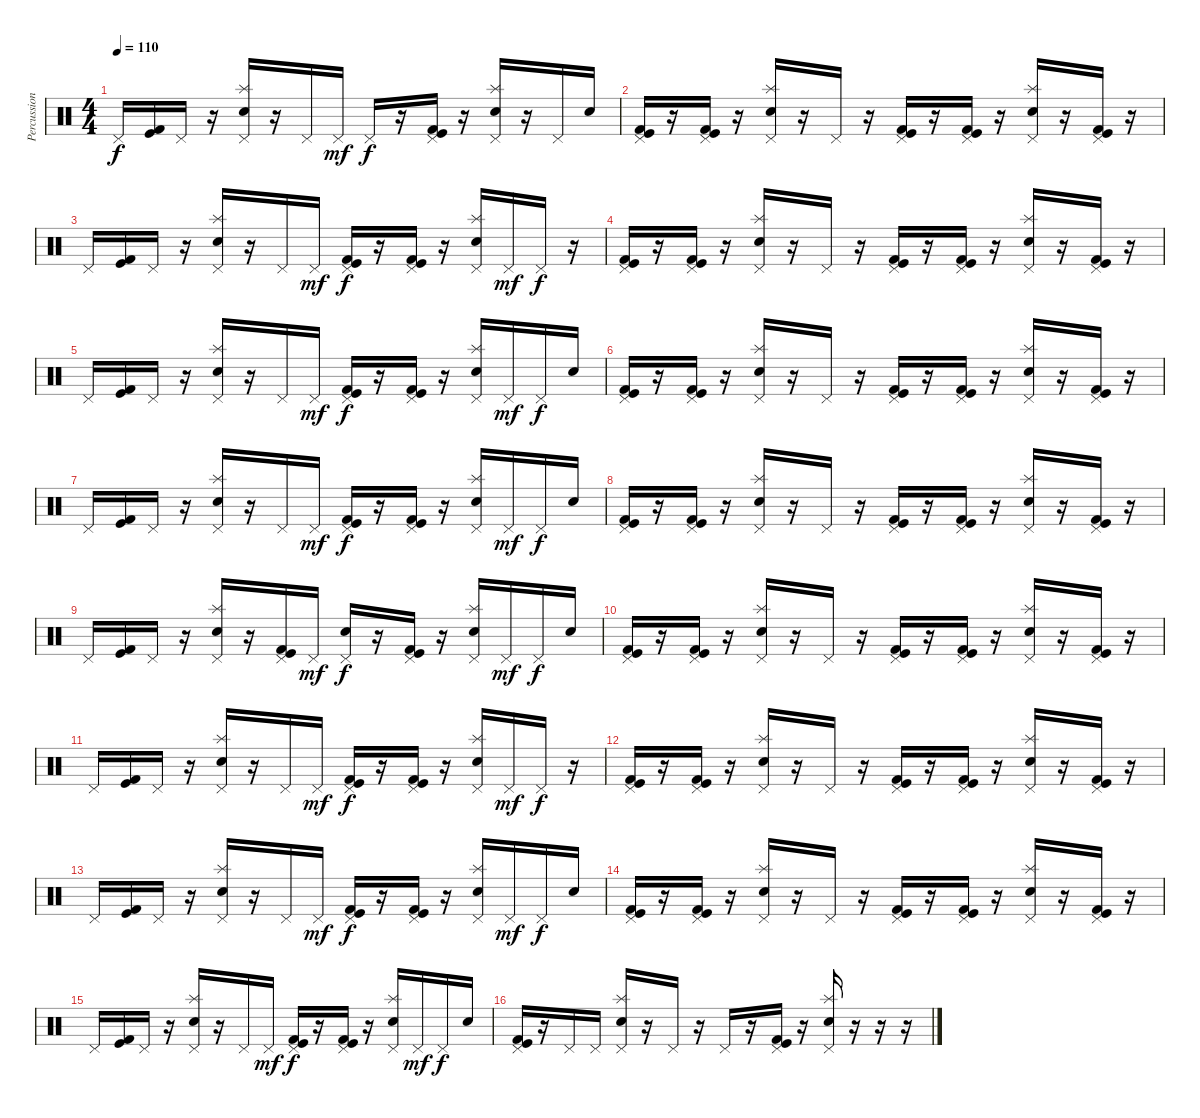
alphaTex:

\track ("Percussion" "Percussion") {instrument percussion}
\staff {score}
\articulation defaults
\ts (4 4)
\tempo 110
\clef neutral
\ks c "Pedal Hi-Hat (hit)".16{dy f}
("Kick (hit)" "Kick (hit) 2").16 "Pedal Hi-Hat (hit)".16 r.16 ("Pedal Hi-Hat (hit)" "Splash (hit)" "Snare (hit) 2").16 r.16 "Pedal Hi-Hat (hit)".16 "Pedal Hi-Hat (hit)".16{dy mf} "Pedal Hi-Hat (hit)".16{dy f} r.16 ("Pedal Hi-Hat (hit)" "Kick (hit)" "Kick (hit) 2").16 r.16 ("Pedal Hi-Hat (hit)" "Splash (hit)" "Snare (hit) 2").16 r.16 "Pedal Hi-Hat (hit)".16 "Snare (hit) 2".16 |
("Pedal Hi-Hat (hit)" "Kick (hit) 2" "Kick (hit)").16 r.16 ("Pedal Hi-Hat (hit)" "Kick (hit)" "Kick (hit) 2").16 r.16 ("Pedal Hi-Hat (hit)" "Splash (hit)" "Snare (hit) 2").16 r.16 "Pedal Hi-Hat (hit)".16 r.16 ("Pedal Hi-Hat (hit)" "Kick (hit)" "Kick (hit) 2").16 r.16 ("Pedal Hi-Hat (hit)" "Kick (hit) 2" "Kick (hit)").16 r.16 ("Pedal Hi-Hat (hit)" "Splash (hit)" "Snare (hit) 2").16 r.16 ("Pedal Hi-Hat (hit)" "Kick (hit)" "Kick (hit) 2").16 r.16 |
"Pedal Hi-Hat (hit)".16 ("Kick (hit)" "Kick (hit) 2").16 "Pedal Hi-Hat (hit)".16 r.16 ("Pedal Hi-Hat (hit)" "Splash (hit)" "Snare (hit) 2").16 r.16 "Pedal Hi-Hat (hit)".16 "Pedal Hi-Hat (hit)".16{dy mf} ("Pedal Hi-Hat (hit)" "Kick (hit) 2" "Kick (hit)").16{dy f} r.16 ("Pedal Hi-Hat (hit)" "Kick (hit)" "Kick (hit) 2").16 r.16 ("Pedal Hi-Hat (hit)" "Splash (hit)" "Snare (hit) 2").16 "Pedal Hi-Hat (hit)".16{dy mf} "Pedal Hi-Hat (hit)".16{dy f} r.16 |
("Pedal Hi-Hat (hit)" "Kick (hit) 2" "Kick (hit)").16 r.16 ("Pedal Hi-Hat (hit)" "Kick (hit)" "Kick (hit) 2").16 r.16 ("Pedal Hi-Hat (hit)" "Splash (hit)" "Snare (hit) 2").16 r.16 "Pedal Hi-Hat (hit)".16 r.16 ("Pedal Hi-Hat (hit)" "Kick (hit)" "Kick (hit) 2").16 r.16 ("Pedal Hi-Hat (hit)" "Kick (hit) 2" "Kick (hit)").16 r.16 ("Pedal Hi-Hat (hit)" "Splash (hit)" "Snare (hit) 2").16 r.16 ("Pedal Hi-Hat (hit)" "Kick (hit)" "Kick (hit) 2").16 r.16 |
"Pedal Hi-Hat (hit)".16 ("Kick (hit)" "Kick (hit) 2").16 "Pedal Hi-Hat (hit)".16 r.16 ("Pedal Hi-Hat (hit)" "Splash (hit)" "Snare (hit) 2").16 r.16 "Pedal Hi-Hat (hit)".16 "Pedal Hi-Hat (hit)".16{dy mf} ("Pedal Hi-Hat (hit)" "Kick (hit) 2" "Kick (hit)").16{dy f} r.16 ("Pedal Hi-Hat (hit)" "Kick (hit)" "Kick (hit) 2").16 r.16 ("Pedal Hi-Hat (hit)" "Splash (hit)" "Snare (hit) 2").16 "Pedal Hi-Hat (hit)".16{dy mf} "Pedal Hi-Hat (hit)".16{dy f} "Snare (hit) 2".16 |
("Pedal Hi-Hat (hit)" "Kick (hit) 2" "Kick (hit)").16 r.16 ("Pedal Hi-Hat (hit)" "Kick (hit)" "Kick (hit) 2").16 r.16 ("Pedal Hi-Hat (hit)" "Splash (hit)" "Snare (hit) 2").16 r.16 "Pedal Hi-Hat (hit)".16 r.16 ("Pedal Hi-Hat (hit)" "Kick (hit)" "Kick (hit) 2").16 r.16 ("Pedal Hi-Hat (hit)" "Kick (hit) 2" "Kick (hit)").16 r.16 ("Pedal Hi-Hat (hit)" "Splash (hit)" "Snare (hit) 2").16 r.16 ("Pedal Hi-Hat (hit)" "Kick (hit)" "Kick (hit) 2").16 r.16 |
"Pedal Hi-Hat (hit)".16 ("Kick (hit)" "Kick (hit) 2").16 "Pedal Hi-Hat (hit)".16 r.16 ("Pedal Hi-Hat (hit)" "Splash (hit)" "Snare (hit) 2").16 r.16 "Pedal Hi-Hat (hit)".16 "Pedal Hi-Hat (hit)".16{dy mf} ("Pedal Hi-Hat (hit)" "Kick (hit) 2" "Kick (hit)").16{dy f} r.16 ("Pedal Hi-Hat (hit)" "Kick (hit)" "Kick (hit) 2").16 r.16 ("Pedal Hi-Hat (hit)" "Splash (hit)" "Snare (hit) 2").16 "Pedal Hi-Hat (hit)".16{dy mf} "Pedal Hi-Hat (hit)".16{dy f} "Snare (hit) 2".16 |
("Pedal Hi-Hat (hit)" "Kick (hit) 2" "Kick (hit)").16 r.16 ("Pedal Hi-Hat (hit)" "Kick (hit)" "Kick (hit) 2").16 r.16 ("Pedal Hi-Hat (hit)" "Splash (hit)" "Snare (hit) 2").16 r.16 "Pedal Hi-Hat (hit)".16 r.16 ("Pedal Hi-Hat (hit)" "Kick (hit)" "Kick (hit) 2").16 r.16 ("Pedal Hi-Hat (hit)" "Kick (hit) 2" "Kick (hit)").16 r.16 ("Pedal Hi-Hat (hit)" "Splash (hit)" "Snare (hit) 2").16 r.16 ("Pedal Hi-Hat (hit)" "Kick (hit)" "Kick (hit) 2").16 r.16 |
"Pedal Hi-Hat (hit)".16 ("Kick (hit)" "Kick (hit) 2").16 "Pedal Hi-Hat (hit)".16 r.16 ("Pedal Hi-Hat (hit)" "Splash (hit)" "Snare (hit) 2").16 r.16 ("Pedal Hi-Hat (hit)" "Kick (hit)" "Kick (hit) 2").16 "Pedal Hi-Hat (hit)".16{dy mf} ("Pedal Hi-Hat (hit)" "Snare (hit) 2").16{dy f} r.16 ("Pedal Hi-Hat (hit)" "Kick (hit)" "Kick (hit) 2").16 r.16 ("Pedal Hi-Hat (hit)" "Splash (hit)" "Snare (hit) 2").16 "Pedal Hi-Hat (hit)".16{dy mf} "Pedal Hi-Hat (hit)".16{dy f} "Snare (hit) 2".16 |
("Pedal Hi-Hat (hit)" "Kick (hit) 2" "Kick (hit)").16 r.16 ("Pedal Hi-Hat (hit)" "Kick (hit)" "Kick (hit) 2").16 r.16 ("Pedal Hi-Hat (hit)" "Splash (hit)" "Snare (hit) 2").16 r.16 "Pedal Hi-Hat (hit)".16 r.16 ("Pedal Hi-Hat (hit)" "Kick (hit)" "Kick (hit) 2").16 r.16 ("Pedal Hi-Hat (hit)" "Kick (hit) 2" "Kick (hit)").16 r.16 ("Pedal Hi-Hat (hit)" "Splash (hit)" "Snare (hit) 2").16 r.16 ("Pedal Hi-Hat (hit)" "Kick (hit)" "Kick (hit) 2").16 r.16 |
"Pedal Hi-Hat (hit)".16 ("Kick (hit)" "Kick (hit) 2").16 "Pedal Hi-Hat (hit)".16 r.16 ("Pedal Hi-Hat (hit)" "Splash (hit)" "Snare (hit) 2").16 r.16 "Pedal Hi-Hat (hit)".16 "Pedal Hi-Hat (hit)".16{dy mf} ("Pedal Hi-Hat (hit)" "Kick (hit) 2" "Kick (hit)").16{dy f} r.16 ("Pedal Hi-Hat (hit)" "Kick (hit)" "Kick (hit) 2").16 r.16 ("Pedal Hi-Hat (hit)" "Splash (hit)" "Snare (hit) 2").16 "Pedal Hi-Hat (hit)".16{dy mf} "Pedal Hi-Hat (hit)".16{dy f} r.16 |
("Pedal Hi-Hat (hit)" "Kick (hit) 2" "Kick (hit)").16 r.16 ("Pedal Hi-Hat (hit)" "Kick (hit)" "Kick (hit) 2").16 r.16 ("Pedal Hi-Hat (hit)" "Splash (hit)" "Snare (hit) 2").16 r.16 "Pedal Hi-Hat (hit)".16 r.16 ("Pedal Hi-Hat (hit)" "Kick (hit)" "Kick (hit) 2").16 r.16 ("Pedal Hi-Hat (hit)" "Kick (hit) 2" "Kick (hit)").16 r.16 ("Pedal Hi-Hat (hit)" "Splash (hit)" "Snare (hit) 2").16 r.16 ("Pedal Hi-Hat (hit)" "Kick (hit)" "Kick (hit) 2").16 r.16 |
"Pedal Hi-Hat (hit)".16 ("Kick (hit)" "Kick (hit) 2").16 "Pedal Hi-Hat (hit)".16 r.16 ("Pedal Hi-Hat (hit)" "Splash (hit)" "Snare (hit) 2").16 r.16 "Pedal Hi-Hat (hit)".16 "Pedal Hi-Hat (hit)".16{dy mf} ("Pedal Hi-Hat (hit)" "Kick (hit) 2" "Kick (hit)").16{dy f} r.16 ("Pedal Hi-Hat (hit)" "Kick (hit)" "Kick (hit) 2").16 r.16 ("Pedal Hi-Hat (hit)" "Splash (hit)" "Snare (hit) 2").16 "Pedal Hi-Hat (hit)".16{dy mf} "Pedal Hi-Hat (hit)".16{dy f} "Snare (hit) 2".16 |
("Pedal Hi-Hat (hit)" "Kick (hit) 2" "Kick (hit)").16 r.16 ("Pedal Hi-Hat (hit)" "Kick (hit)" "Kick (hit) 2").16 r.16 ("Pedal Hi-Hat (hit)" "Splash (hit)" "Snare (hit) 2").16 r.16 "Pedal Hi-Hat (hit)".16 r.16 ("Pedal Hi-Hat (hit)" "Kick (hit)" "Kick (hit) 2").16 r.16 ("Pedal Hi-Hat (hit)" "Kick (hit) 2" "Kick (hit)").16 r.16 ("Pedal Hi-Hat (hit)" "Splash (hit)" "Snare (hit) 2").16 r.16 ("Pedal Hi-Hat (hit)" "Kick (hit)" "Kick (hit) 2").16 r.16 |
"Pedal Hi-Hat (hit)".16 ("Kick (hit)" "Kick (hit) 2").16 "Pedal Hi-Hat (hit)".16 r.16 ("Pedal Hi-Hat (hit)" "Splash (hit)" "Snare (hit) 2").16 r.16 "Pedal Hi-Hat (hit)".16 "Pedal Hi-Hat (hit)".16{dy mf} ("Pedal Hi-Hat (hit)" "Kick (hit) 2" "Kick (hit)").16{dy f} r.16 ("Pedal Hi-Hat (hit)" "Kick (hit)" "Kick (hit) 2").16 r.16 ("Pedal Hi-Hat (hit)" "Splash (hit)" "Snare (hit) 2").16 "Pedal Hi-Hat (hit)".16{dy mf} "Pedal Hi-Hat (hit)".16{dy f} "Snare (hit) 2".16 |
("Pedal Hi-Hat (hit)" "Kick (hit) 2" "Kick (hit)").16 r.16 "Pedal Hi-Hat (hit)".16 "Pedal Hi-Hat (hit)".16 ("Pedal Hi-Hat (hit)" "Splash (hit)" "Snare (hit) 2").16 r.16 "Pedal Hi-Hat (hit)".16 r.16 "Pedal Hi-Hat (hit)".16 r.16 ("Pedal Hi-Hat (hit)" "Kick (hit) 2" "Kick (hit)").16 r.16 ("Pedal Hi-Hat (hit)" "Splash (hit)" "Snare (hit) 2").16 r.16 r.16 r.16
